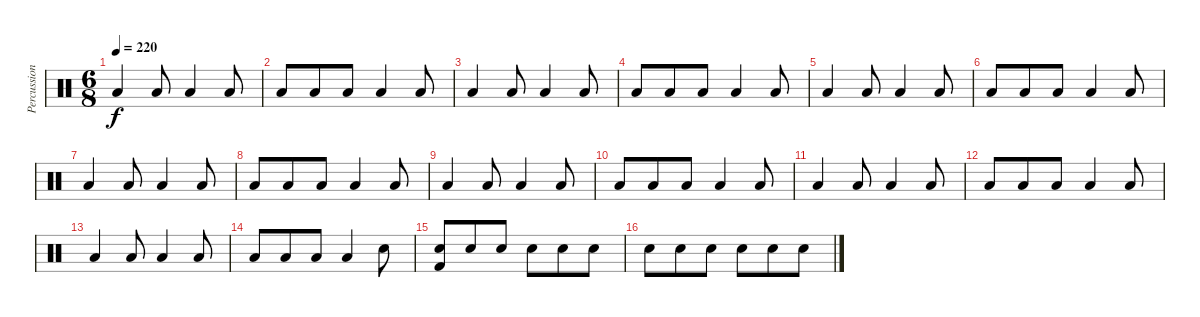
\track ("Percussion" "Percussion") {instrument percussion}
\staff {score}
\articulation defaults
\ts (6 8)
\tempo 220
\clef neutral
\ks c "Low Floor Tom (hit)".4{dy f} "Low Floor Tom (hit)".8 "Low Tom (hit)".4 "Low Tom (hit)".8
|
"Low Floor Tom (hit)".8 "Low Floor Tom (hit)".8 "Low Floor Tom (hit)".8 "Low Tom (hit)".4 "Low Tom (hit)".8 |
"Low Floor Tom (hit)".4 "Low Floor Tom (hit)".8 "Low Tom (hit)".4 "Low Tom (hit)".8 |
"Low Floor Tom (hit)".8 "Low Floor Tom (hit)".8 "Low Floor Tom (hit)".8 "Low Tom (hit)".4 "Low Tom (hit)".8 |
"Low Floor Tom (hit)".4 "Low Floor Tom (hit)".8 "Low Tom (hit)".4 "Low Tom (hit)".8 |
"Low Floor Tom (hit)".8 "Low Floor Tom (hit)".8 "Low Floor Tom (hit)".8 "Low Tom (hit)".4 "Low Tom (hit)".8 |
"Low Floor Tom (hit)".4 "Low Floor Tom (hit)".8 "Low Tom (hit)".4 "Low Tom (hit)".8 |
"Low Floor Tom (hit)".8 "Low Floor Tom (hit)".8 "Low Floor Tom (hit)".8 "Low Tom (hit)".4 "Low Tom (hit)".8 |
"Low Floor Tom (hit)".4 "Low Floor Tom (hit)".8 "Low Tom (hit)".4 "Low Tom (hit)".8 |
"Low Floor Tom (hit)".8 "Low Floor Tom (hit)".8 "Low Floor Tom (hit)".8 "Low Tom (hit)".4 "Low Tom (hit)".8 |
"Low Floor Tom (hit)".4 "Low Floor Tom (hit)".8 "Low Tom (hit)".4 "Low Tom (hit)".8 |
"Low Floor Tom (hit)".8 "Low Floor Tom (hit)".8 "Low Floor Tom (hit)".8 "Low Tom (hit)".4 "Low Tom (hit)".8 |
"Low Floor Tom (hit)".4 "Low Floor Tom (hit)".8 "Low Tom (hit)".4 "Low Tom (hit)".8 |
"Low Floor Tom (hit)".8 "Low Floor Tom (hit)".8 "Low Floor Tom (hit)".8 "Low Tom (hit)".4 "Electric Snare (hit)".8{volume 11} |
("Electric Snare (hit)" "Kick (hit) 2").8 "Electric Snare (hit)".8 "Electric Snare (hit)".8 "Electric Snare (hit)".8 "Electric Snare (hit)".8 "Electric Snare (hit)".8 |
"Electric Snare (hit)".8 "Electric Snare (hit)".8 "Electric Snare (hit)".8 "Electric Snare (hit)".8 "Electric Snare (hit)".8 "Electric Snare (hit)".8
